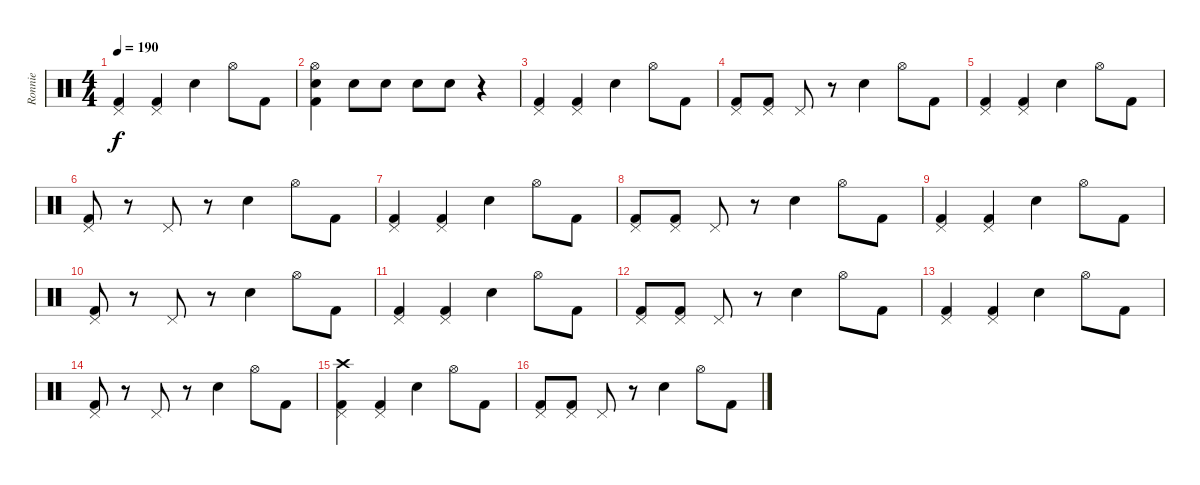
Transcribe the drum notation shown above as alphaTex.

\track ("Ronnie" "Ronnie") {instrument percussion}
\staff {score}
\articulation defaults
\ts (4 4)
\tempo 190
\clef neutral
\ks c
("Pedal Hi-Hat (hit)" "Kick (hit) 2").4{dy f} ("Pedal Hi-Hat (hit)" "Kick (hit) 2").4 "Electric Snare (hit)".4 "Hi-Hat (open)".8 "Kick (hit) 2".8 |
("Hi-Hat (open)" "Kick (hit) 2" "Electric Snare (hit)").4 "Electric Snare (hit)".8 "Electric Snare (hit)".8 "Electric Snare (hit)".8 "Electric Snare (hit)".8 r.4 |
("Pedal Hi-Hat (hit)" "Kick (hit) 2").4 ("Pedal Hi-Hat (hit)" "Kick (hit) 2").4 "Electric Snare (hit)".4 "Hi-Hat (open)".8 "Kick (hit) 2".8 |
("Pedal Hi-Hat (hit)" "Kick (hit) 2").8 ("Pedal Hi-Hat (hit)" "Kick (hit) 2").8 "Pedal Hi-Hat (hit)".8 r.8 "Electric Snare (hit)".4 "Hi-Hat (open)".8 "Kick (hit) 2".8 |
("Pedal Hi-Hat (hit)" "Kick (hit) 2").4 ("Pedal Hi-Hat (hit)" "Kick (hit) 2").4 "Electric Snare (hit)".4 "Hi-Hat (open)".8 "Kick (hit) 2".8 |
("Pedal Hi-Hat (hit)" "Kick (hit) 2").8 r.8 "Pedal Hi-Hat (hit)".8 r.8 "Electric Snare (hit)".4 "Hi-Hat (open)".8 "Kick (hit) 2".8 |
("Pedal Hi-Hat (hit)" "Kick (hit) 2").4 ("Pedal Hi-Hat (hit)" "Kick (hit) 2").4 "Electric Snare (hit)".4 "Hi-Hat (open)".8 "Kick (hit) 2".8 |
("Pedal Hi-Hat (hit)" "Kick (hit) 2").8 ("Pedal Hi-Hat (hit)" "Kick (hit) 2").8 "Pedal Hi-Hat (hit)".8 r.8 "Electric Snare (hit)".4 "Hi-Hat (open)".8 "Kick (hit) 2".8 |
("Pedal Hi-Hat (hit)" "Kick (hit) 2").4 ("Pedal Hi-Hat (hit)" "Kick (hit) 2").4 "Electric Snare (hit)".4 "Hi-Hat (open)".8 "Kick (hit) 2".8 |
("Pedal Hi-Hat (hit)" "Kick (hit) 2").8 r.8 "Pedal Hi-Hat (hit)".8 r.8 "Electric Snare (hit)".4 "Hi-Hat (open)".8 "Kick (hit) 2".8 |
("Pedal Hi-Hat (hit)" "Kick (hit) 2").4 ("Pedal Hi-Hat (hit)" "Kick (hit) 2").4 "Electric Snare (hit)".4 "Hi-Hat (open)".8 "Kick (hit) 2".8 |
("Pedal Hi-Hat (hit)" "Kick (hit) 2").8 ("Pedal Hi-Hat (hit)" "Kick (hit) 2").8 "Pedal Hi-Hat (hit)".8 r.8 "Electric Snare (hit)".4 "Hi-Hat (open)".8 "Kick (hit) 2".8 |
("Pedal Hi-Hat (hit)" "Kick (hit) 2").4 ("Pedal Hi-Hat (hit)" "Kick (hit) 2").4 "Electric Snare (hit)".4 "Hi-Hat (open)".8 "Kick (hit) 2".8 |
("Pedal Hi-Hat (hit)" "Kick (hit) 2").8 r.8 "Pedal Hi-Hat (hit)".8 r.8 "Electric Snare (hit)".4 "Hi-Hat (open)".8 "Kick (hit) 2".8 |
("Pedal Hi-Hat (hit)" "Kick (hit) 2" "Crash high (hit)").4 ("Pedal Hi-Hat (hit)" "Kick (hit) 2").4 "Electric Snare (hit)".4 "Hi-Hat (open)".8 "Kick (hit) 2".8 |
("Pedal Hi-Hat (hit)" "Kick (hit) 2").8 ("Pedal Hi-Hat (hit)" "Kick (hit) 2").8 "Pedal Hi-Hat (hit)".8 r.8 "Electric Snare (hit)".4 "Hi-Hat (open)".8 "Kick (hit) 2".8
